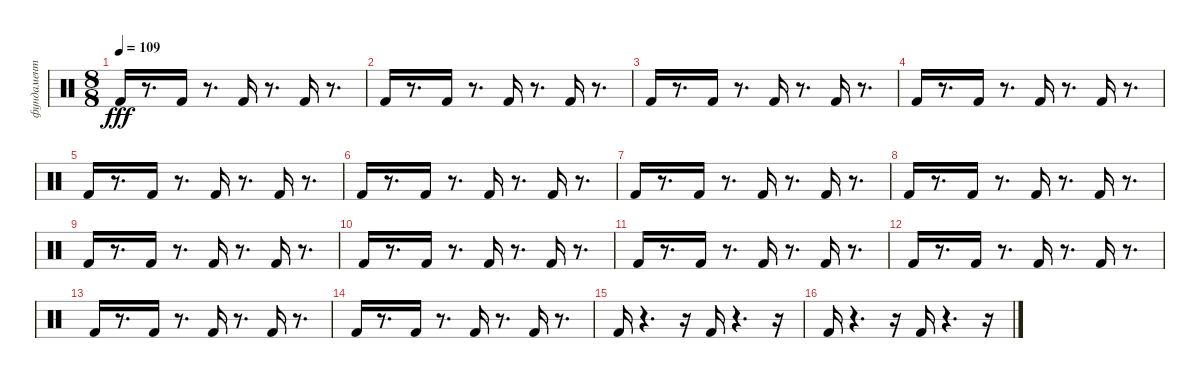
\track ("фундамент" "фундамент") {instrument percussion}
\staff {score}
\articulation defaults
\ts (8 8)
\tempo 109
\clef neutral
\ks c "Kick (hit) 2".16{dy fff}
r.8{d} "Kick (hit) 2".16 r.8{d} "Kick (hit) 2".16 r.8{d} "Kick (hit) 2".16 r.8{d} |
"Kick (hit) 2".16 r.8{d} "Kick (hit) 2".16 r.8{d} "Kick (hit) 2".16 r.8{d} "Kick (hit) 2".16 r.8{d} |
"Kick (hit) 2".16 r.8{d} "Kick (hit) 2".16 r.8{d} "Kick (hit) 2".16 r.8{d} "Kick (hit) 2".16 r.8{d} |
"Kick (hit) 2".16 r.8{d} "Kick (hit) 2".16 r.8{d} "Kick (hit) 2".16 r.8{d} "Kick (hit) 2".16 r.8{d} |
"Kick (hit) 2".16 r.8{d} "Kick (hit) 2".16 r.8{d} "Kick (hit) 2".16 r.8{d} "Kick (hit) 2".16 r.8{d} |
"Kick (hit) 2".16 r.8{d} "Kick (hit) 2".16 r.8{d} "Kick (hit) 2".16 r.8{d} "Kick (hit) 2".16 r.8{d} |
"Kick (hit) 2".16 r.8{d} "Kick (hit) 2".16 r.8{d} "Kick (hit) 2".16 r.8{d} "Kick (hit) 2".16 r.8{d} |
"Kick (hit) 2".16 r.8{d} "Kick (hit) 2".16 r.8{d} "Kick (hit) 2".16 r.8{d} "Kick (hit) 2".16 r.8{d} |
"Kick (hit) 2".16 r.8{d} "Kick (hit) 2".16 r.8{d} "Kick (hit) 2".16 r.8{d} "Kick (hit) 2".16 r.8{d} |
"Kick (hit) 2".16 r.8{d} "Kick (hit) 2".16 r.8{d} "Kick (hit) 2".16 r.8{d} "Kick (hit) 2".16 r.8{d} |
"Kick (hit) 2".16 r.8{d} "Kick (hit) 2".16 r.8{d} "Kick (hit) 2".16 r.8{d} "Kick (hit) 2".16 r.8{d} |
"Kick (hit) 2".16 r.8{d} "Kick (hit) 2".16 r.8{d} "Kick (hit) 2".16 r.8{d} "Kick (hit) 2".16 r.8{d} |
"Kick (hit) 2".16 r.8{d} "Kick (hit) 2".16 r.8{d} "Kick (hit) 2".16 r.8{d} "Kick (hit) 2".16 r.8{d} |
"Kick (hit) 2".16 r.8{d} "Kick (hit) 2".16 r.8{d} "Kick (hit) 2".16 r.8{d} "Kick (hit) 2".16 r.8{d} |
"Kick (hit) 2".16 r.4{d} r.16 "Kick (hit) 2".16 r.4{d} r.16 |
"Kick (hit) 2".16 r.4{d} r.16 "Kick (hit) 2".16 r.4{d} r.16
